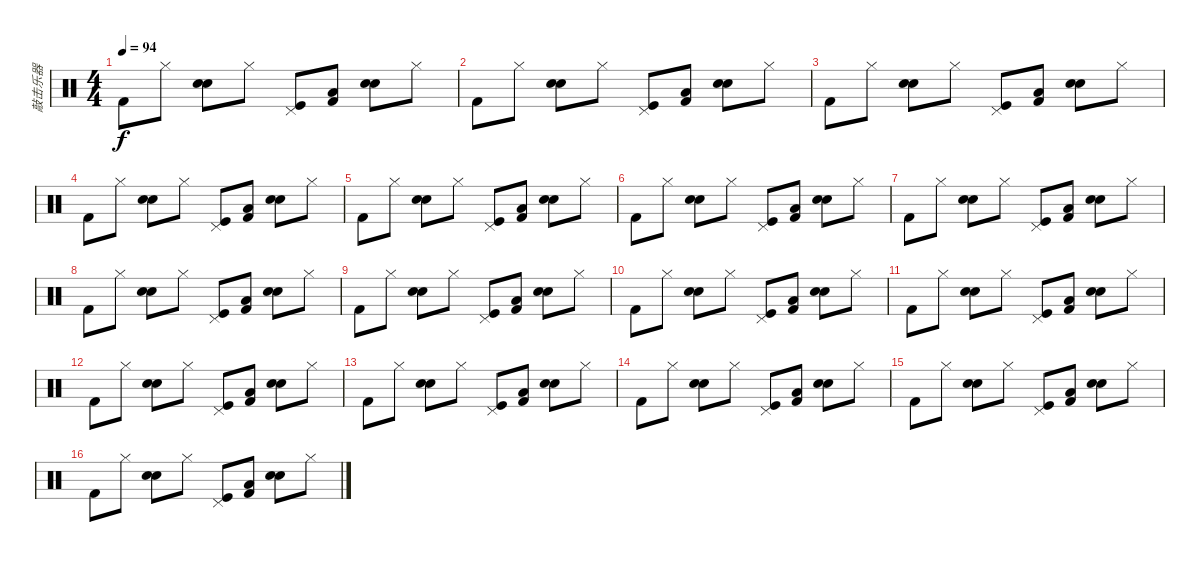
\track ("敲击乐器" "敲击乐器") {instrument percussion}
\staff {score}
\articulation defaults
\ts (4 4)
\tempo 94
\clef neutral
\ks c "Kick (hit) 2".8{dy f} "Hi-Hat (closed)".8
("Snare (hit) 2" "Hand Clap (hit)").8 "Hi-Hat (closed)".8 ("Pedal Hi-Hat (hit)" "Kick (hit)").8 ("Kick (hit) 2" "Low Tom (hit)").8 ("Snare (hit) 2" "Electric Snare (hit)").8 "Hi-Hat (closed)".8 |
"Kick (hit) 2".8 "Hi-Hat (closed)".8 ("Snare (hit) 2" "Hand Clap (hit)").8 "Hi-Hat (closed)".8 ("Pedal Hi-Hat (hit)" "Kick (hit)").8 ("Kick (hit) 2" "Low Tom (hit)").8 ("Snare (hit) 2" "Electric Snare (hit)").8 "Hi-Hat (closed)".8 |
"Kick (hit) 2".8 "Hi-Hat (closed)".8 ("Snare (hit) 2" "Hand Clap (hit)").8 "Hi-Hat (closed)".8 ("Pedal Hi-Hat (hit)" "Kick (hit)").8 ("Kick (hit) 2" "Low Tom (hit)").8 ("Snare (hit) 2" "Electric Snare (hit)").8 "Hi-Hat (closed)".8 |
"Kick (hit) 2".8 "Hi-Hat (closed)".8 ("Snare (hit) 2" "Hand Clap (hit)").8 "Hi-Hat (closed)".8 ("Pedal Hi-Hat (hit)" "Kick (hit)").8 ("Kick (hit) 2" "Low Tom (hit)").8 ("Snare (hit) 2" "Electric Snare (hit)").8 "Hi-Hat (closed)".8 |
"Kick (hit) 2".8 "Hi-Hat (closed)".8 ("Snare (hit) 2" "Hand Clap (hit)").8 "Hi-Hat (closed)".8 ("Pedal Hi-Hat (hit)" "Kick (hit)").8 ("Kick (hit) 2" "Low Tom (hit)").8 ("Snare (hit) 2" "Electric Snare (hit)").8 "Hi-Hat (closed)".8 |
"Kick (hit) 2".8 "Hi-Hat (closed)".8 ("Snare (hit) 2" "Hand Clap (hit)").8 "Hi-Hat (closed)".8 ("Pedal Hi-Hat (hit)" "Kick (hit)").8 ("Kick (hit) 2" "Low Tom (hit)").8 ("Snare (hit) 2" "Electric Snare (hit)").8 "Hi-Hat (closed)".8 |
"Kick (hit) 2".8 "Hi-Hat (closed)".8 ("Snare (hit) 2" "Hand Clap (hit)").8 "Hi-Hat (closed)".8 ("Pedal Hi-Hat (hit)" "Kick (hit)").8 ("Kick (hit) 2" "Low Tom (hit)").8 ("Snare (hit) 2" "Electric Snare (hit)").8 "Hi-Hat (closed)".8 |
"Kick (hit) 2".8 "Hi-Hat (closed)".8 ("Snare (hit) 2" "Hand Clap (hit)").8 "Hi-Hat (closed)".8 ("Pedal Hi-Hat (hit)" "Kick (hit)").8 ("Kick (hit) 2" "Low Tom (hit)").8 ("Snare (hit) 2" "Electric Snare (hit)").8 "Hi-Hat (closed)".8 |
"Kick (hit) 2".8 "Hi-Hat (closed)".8 ("Snare (hit) 2" "Hand Clap (hit)").8 "Hi-Hat (closed)".8 ("Pedal Hi-Hat (hit)" "Kick (hit)").8 ("Kick (hit) 2" "Low Tom (hit)").8 ("Snare (hit) 2" "Electric Snare (hit)").8 "Hi-Hat (closed)".8 |
"Kick (hit) 2".8 "Hi-Hat (closed)".8 ("Snare (hit) 2" "Hand Clap (hit)").8 "Hi-Hat (closed)".8 ("Pedal Hi-Hat (hit)" "Kick (hit)").8 ("Kick (hit) 2" "Low Tom (hit)").8 ("Snare (hit) 2" "Electric Snare (hit)").8 "Hi-Hat (closed)".8 |
"Kick (hit) 2".8 "Hi-Hat (closed)".8 ("Snare (hit) 2" "Hand Clap (hit)").8 "Hi-Hat (closed)".8 ("Pedal Hi-Hat (hit)" "Kick (hit)").8 ("Kick (hit) 2" "Low Tom (hit)").8 ("Snare (hit) 2" "Electric Snare (hit)").8 "Hi-Hat (closed)".8 |
"Kick (hit) 2".8 "Hi-Hat (closed)".8 ("Snare (hit) 2" "Hand Clap (hit)").8 "Hi-Hat (closed)".8 ("Pedal Hi-Hat (hit)" "Kick (hit)").8 ("Kick (hit) 2" "Low Tom (hit)").8 ("Snare (hit) 2" "Electric Snare (hit)").8 "Hi-Hat (closed)".8 |
"Kick (hit) 2".8 "Hi-Hat (closed)".8 ("Snare (hit) 2" "Hand Clap (hit)").8 "Hi-Hat (closed)".8 ("Pedal Hi-Hat (hit)" "Kick (hit)").8 ("Kick (hit) 2" "Low Tom (hit)").8 ("Snare (hit) 2" "Electric Snare (hit)").8 "Hi-Hat (closed)".8 |
"Kick (hit) 2".8 "Hi-Hat (closed)".8 ("Snare (hit) 2" "Hand Clap (hit)").8 "Hi-Hat (closed)".8 ("Pedal Hi-Hat (hit)" "Kick (hit)").8 ("Kick (hit) 2" "Low Tom (hit)").8 ("Snare (hit) 2" "Electric Snare (hit)").8 "Hi-Hat (closed)".8 |
"Kick (hit) 2".8 "Hi-Hat (closed)".8 ("Snare (hit) 2" "Hand Clap (hit)").8 "Hi-Hat (closed)".8 ("Pedal Hi-Hat (hit)" "Kick (hit)").8 ("Kick (hit) 2" "Low Tom (hit)").8 ("Snare (hit) 2" "Electric Snare (hit)").8 "Hi-Hat (closed)".8 |
"Kick (hit) 2".8 "Hi-Hat (closed)".8 ("Snare (hit) 2" "Hand Clap (hit)").8 "Hi-Hat (closed)".8 ("Pedal Hi-Hat (hit)" "Kick (hit)").8 ("Kick (hit) 2" "Low Tom (hit)").8 ("Snare (hit) 2" "Electric Snare (hit)").8 "Hi-Hat (closed)".8
